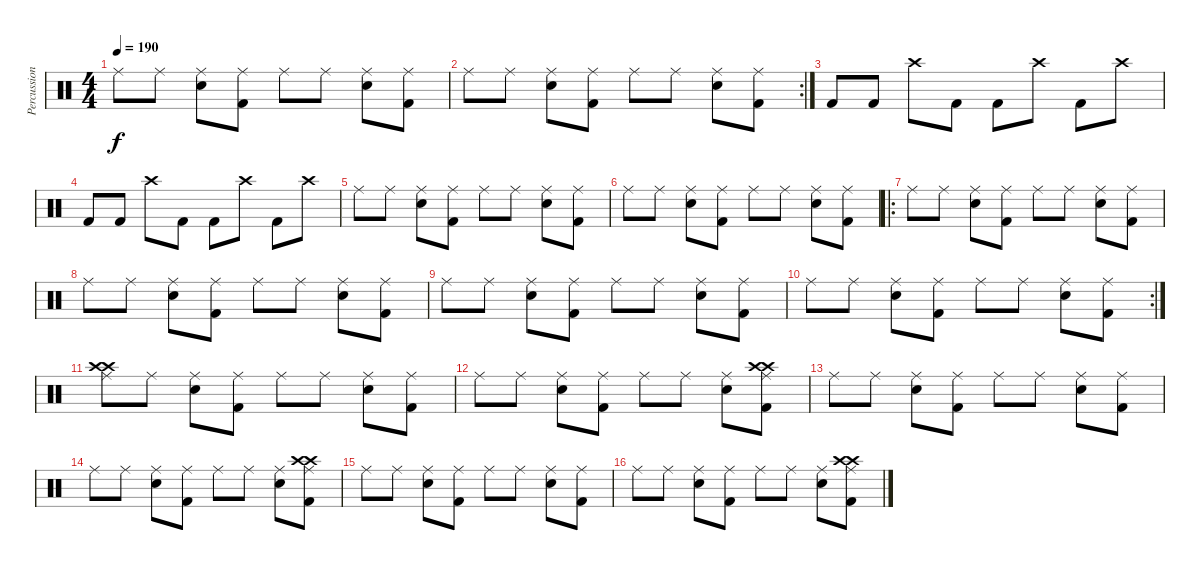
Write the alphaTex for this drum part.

\track ("Percussion" "Percussion") {instrument percussion}
\staff {score}
\articulation defaults
\ts (4 4)
\tempo 190
\clef neutral
\ks c "Ride (middle)".8{dy f} "Ride (middle)".8
("Ride (middle)" "Snare (hit) 2").8 ("Ride (middle)" "Kick (hit) 2").8 "Ride (middle)".8 "Ride (middle)".8 ("Ride (middle)" "Snare (hit) 2").8 ("Ride (middle)" "Kick (hit) 2").8 |
\rc 2 "Ride (middle)".8 "Ride (middle)".8
("Ride (middle)" "Snare (hit) 2").8 ("Ride (middle)" "Kick (hit) 2").8 "Ride (middle)".8 "Ride (middle)".8 ("Ride (middle)" "Snare (hit) 2").8 ("Ride (middle)" "Kick (hit) 2").8 |
"Kick (hit) 2".8 "Kick (hit) 2".8 "Crash high (hit)".8 "Kick (hit) 2".8 "Kick (hit) 2".8 "Crash high (hit)".8 "Kick (hit) 2".8 "Crash high (hit)".8 |
"Kick (hit) 2".8 "Kick (hit) 2".8 "Crash high (hit)".8 "Kick (hit) 2".8 "Kick (hit) 2".8 "Crash high (hit)".8 "Kick (hit) 2".8 "Crash high (hit)".8 |
"Ride (middle)".8 "Ride (middle)".8 ("Ride (middle)" "Snare (hit) 2").8 ("Ride (middle)" "Kick (hit) 2").8 "Ride (middle)".8 "Ride (middle)".8 ("Ride (middle)" "Snare (hit) 2").8 ("Ride (middle)" "Kick (hit) 2").8 |
"Ride (middle)".8 "Ride (middle)".8 ("Ride (middle)" "Snare (hit) 2").8 ("Ride (middle)" "Kick (hit) 2").8 "Ride (middle)".8 "Ride (middle)".8 ("Ride (middle)" "Snare (hit) 2").8 ("Ride (middle)" "Kick (hit) 2").8 |
\ro "Ride (middle)".8 "Ride (middle)".8
("Ride (middle)" "Snare (hit) 2").8 ("Ride (middle)" "Kick (hit) 2").8 "Ride (middle)".8 "Ride (middle)".8 ("Ride (middle)" "Snare (hit) 2").8 ("Ride (middle)" "Kick (hit) 2").8 |
"Ride (middle)".8 "Ride (middle)".8 ("Ride (middle)" "Snare (hit) 2").8 ("Ride (middle)" "Kick (hit) 2").8 "Ride (middle)".8 "Ride (middle)".8 ("Ride (middle)" "Snare (hit) 2").8 ("Ride (middle)" "Kick (hit) 2").8 |
"Ride (middle)".8 "Ride (middle)".8 ("Ride (middle)" "Snare (hit) 2").8 ("Ride (middle)" "Kick (hit) 2").8 "Ride (middle)".8 "Ride (middle)".8 ("Ride (middle)" "Snare (hit) 2").8 ("Ride (middle)" "Kick (hit) 2").8 |
\rc 2 "Ride (middle)".8 "Ride (middle)".8
("Ride (middle)" "Snare (hit) 2").8 ("Ride (middle)" "Kick (hit) 2").8 "Ride (middle)".8 "Ride (middle)".8 ("Ride (middle)" "Snare (hit) 2").8 ("Ride (middle)" "Kick (hit) 2").8 |
("Ride (middle)" "Crash high (hit)" "Crash high (hit)").8 "Ride (middle)".8 ("Ride (middle)" "Snare (hit) 2").8 ("Ride (middle)" "Kick (hit) 2").8 "Ride (middle)".8 "Ride (middle)".8 ("Ride (middle)" "Snare (hit) 2").8 ("Ride (middle)" "Kick (hit) 2").8 |
"Ride (middle)".8 "Ride (middle)".8 ("Ride (middle)" "Snare (hit) 2").8 ("Ride (middle)" "Kick (hit) 2").8 "Ride (middle)".8 "Ride (middle)".8 ("Ride (middle)" "Snare (hit) 2").8 ("Ride (middle)" "Kick (hit) 2" "Crash high (hit)" "Crash high (hit)").8 |
"Ride (middle)".8 "Ride (middle)".8 ("Ride (middle)" "Snare (hit) 2").8 ("Ride (middle)" "Kick (hit) 2").8 "Ride (middle)".8 "Ride (middle)".8 ("Ride (middle)" "Snare (hit) 2").8 ("Ride (middle)" "Kick (hit) 2").8 |
"Ride (middle)".8 "Ride (middle)".8 ("Ride (middle)" "Snare (hit) 2").8 ("Ride (middle)" "Kick (hit) 2").8 "Ride (middle)".8 "Ride (middle)".8 ("Ride (middle)" "Snare (hit) 2").8 ("Ride (middle)" "Kick (hit) 2" "Crash high (hit)" "Crash high (hit)").8 |
"Ride (middle)".8 "Ride (middle)".8 ("Ride (middle)" "Snare (hit) 2").8 ("Ride (middle)" "Kick (hit) 2").8 "Ride (middle)".8 "Ride (middle)".8 ("Ride (middle)" "Snare (hit) 2").8 ("Ride (middle)" "Kick (hit) 2").8 |
"Ride (middle)".8 "Ride (middle)".8 ("Ride (middle)" "Snare (hit) 2").8 ("Ride (middle)" "Kick (hit) 2").8 "Ride (middle)".8 "Ride (middle)".8 ("Ride (middle)" "Snare (hit) 2").8 ("Ride (middle)" "Kick (hit) 2" "Crash high (hit)" "Crash high (hit)").8
